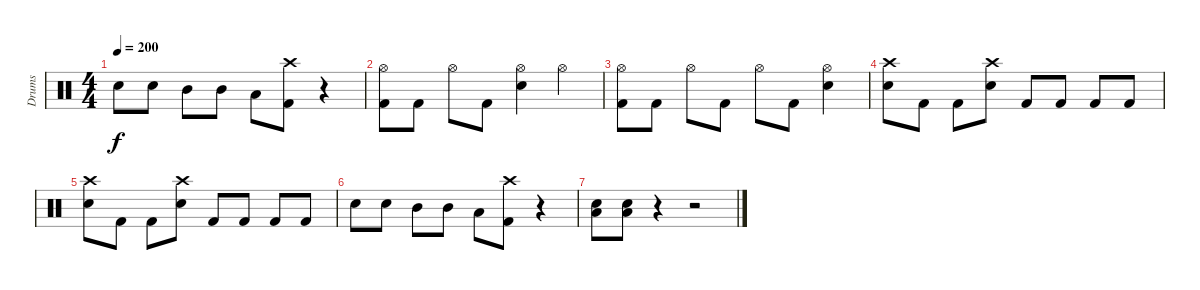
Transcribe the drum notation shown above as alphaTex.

\track ("Drums" "Drums") {instrument percussion}
\staff {score}
\articulation defaults
\ts (4 4)
\tempo 200
\clef neutral
\ks c "Electric Snare (hit)".8{dy f} "Electric Snare (hit)".8 "Mid Tom (hit)".8 "Mid Tom (hit)".8 "Low Tom (hit)".8
("Crash high (hit)" "Kick (hit) 2").8 r.4 |
("Hi-Hat (open)" "Kick (hit) 2").8 "Kick (hit) 2".8 "Hi-Hat (open)".8 "Kick (hit) 2".8 ("Hi-Hat (open)" "Electric Snare (hit)").4 "Hi-Hat (open)".4 |
("Hi-Hat (open)" "Kick (hit) 2").8 "Kick (hit) 2".8 "Hi-Hat (open)".8 "Kick (hit) 2".8 "Hi-Hat (open)".8 "Kick (hit) 2".8 ("Hi-Hat (open)" "Electric Snare (hit)").4 |
("Crash high (hit)" "Electric Snare (hit)").8 "Kick (hit) 2".8 "Kick (hit) 2".8 ("Crash high (hit)" "Electric Snare (hit)").8 "Kick (hit) 2".8 "Kick (hit) 2".8 "Kick (hit) 2".8 "Kick (hit) 2".8 |
("Crash high (hit)" "Electric Snare (hit)").8 "Kick (hit) 2".8 "Kick (hit) 2".8 ("Crash high (hit)" "Electric Snare (hit)").8 "Kick (hit) 2".8 "Kick (hit) 2".8 "Kick (hit) 2".8 "Kick (hit) 2".8 |
"Electric Snare (hit)".8 "Electric Snare (hit)".8 "Mid Tom (hit)".8 "Mid Tom (hit)".8 "Low Tom (hit)".8 ("Crash high (hit)" "Kick (hit) 2").8 r.4 |
("Electric Snare (hit)" "Low Tom (hit)").8 ("Electric Snare (hit)" "Low Tom (hit)").8 r.4 r.2
